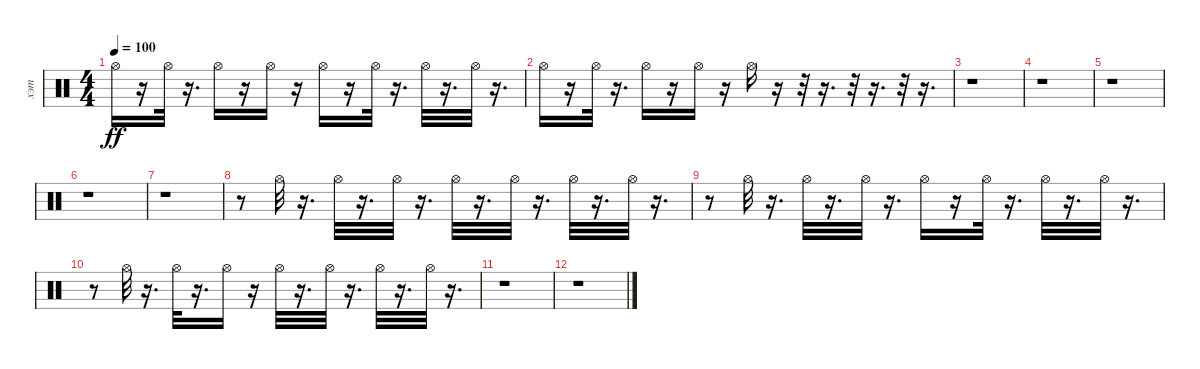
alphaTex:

\track ("хэт" "хэт") {instrument percussion}
\staff {score}
\articulation defaults
\ts (4 4)
\tempo 100
\clef neutral
\ks c "Hi-Hat (open)".16{dy ff}
r.16 "Hi-Hat (open)".32 r.16{d} "Hi-Hat (open)".16 r.16 "Hi-Hat (open)".16 r.16 "Hi-Hat (open)".16 r.16 "Hi-Hat (open)".32 r.16{d} "Hi-Hat (open)".32 r.16{d} "Hi-Hat (open)".32 r.16{d} |
"Hi-Hat (open)".16 r.16 "Hi-Hat (open)".32 r.16{d} "Hi-Hat (open)".16 r.16 "Hi-Hat (open)".16 r.16 "Hi-Hat (open)".16 r.16 r.32 r.16{d} r.32 r.16{d} r.32 r.16{d} |
r.1 |
r.1 |
r.1 |
r.1 |
r.1 |
r.8 "Hi-Hat (open)".32 r.16{d} "Hi-Hat (open)".32 r.16{d} "Hi-Hat (open)".32 r.16{d} "Hi-Hat (open)".32 r.16{d} "Hi-Hat (open)".32 r.16{d} "Hi-Hat (open)".32 r.16{d} "Hi-Hat (open)".32 r.16{d} |
r.8 "Hi-Hat (open)".32 r.16{d} "Hi-Hat (open)".32 r.16{d} "Hi-Hat (open)".32 r.16{d} "Hi-Hat (open)".16 r.16 "Hi-Hat (open)".32 r.16{d} "Hi-Hat (open)".32 r.16{d} "Hi-Hat (open)".32 r.16{d} |
r.8 "Hi-Hat (open)".32 r.16{d} "Hi-Hat (open)".32 r.16{d} "Hi-Hat (open)".16 r.16 "Hi-Hat (open)".32 r.16{d} "Hi-Hat (open)".32 r.16{d} "Hi-Hat (open)".32 r.16{d} "Hi-Hat (open)".32 r.16{d} |
r.1 |
r.1
